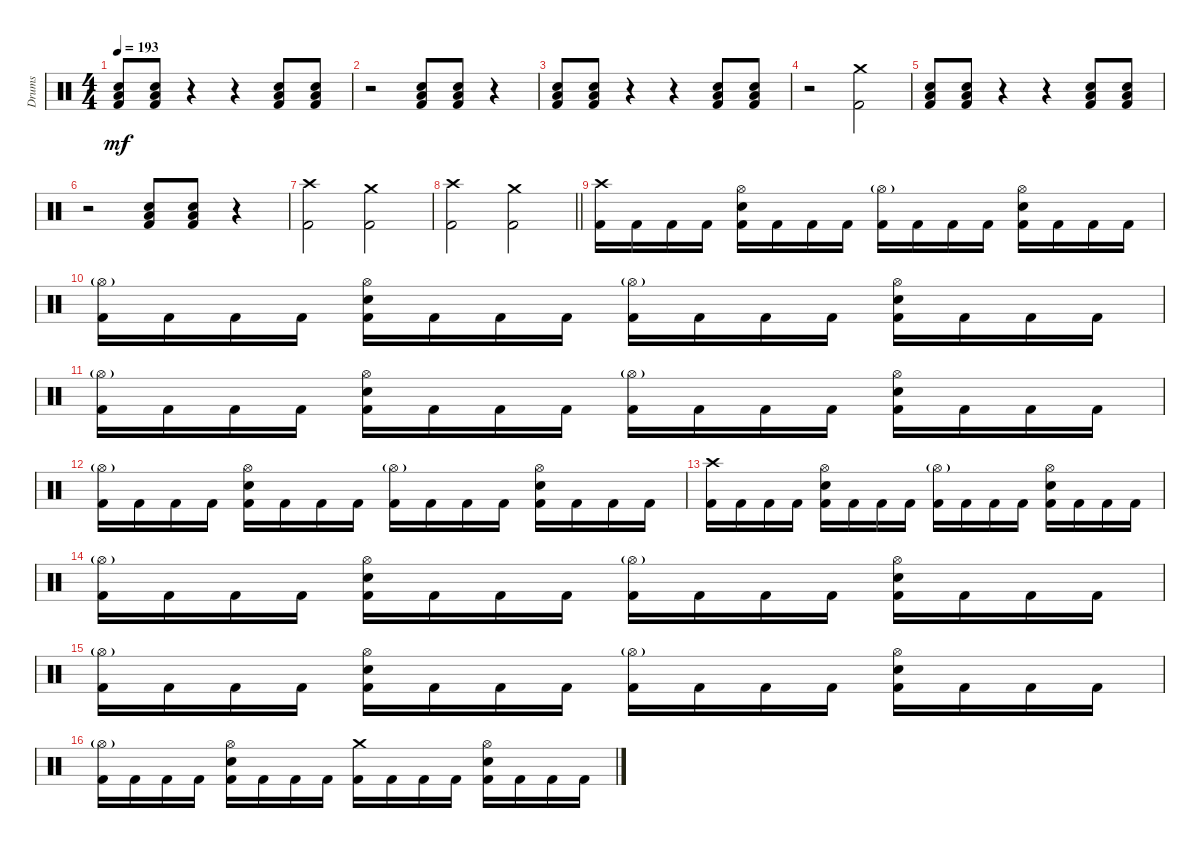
\track ("Drums" "Drums") {instrument percussion}
\staff {score}
\articulation defaults
\ts (4 4)
\tempo 193
\clef neutral
\ks c
("Low Tom (hit)" "Electric Snare (hit)" "Kick (hit) 2").8{dy mf} ("Low Tom (hit)" "Electric Snare (hit)" "Kick (hit) 2").8 r.4 r.4 ("Low Tom (hit)" "Electric Snare (hit)" "Kick (hit) 2").8 ("Low Tom (hit)" "Electric Snare (hit)" "Kick (hit) 2").8 |
r.2 ("Low Tom (hit)" "Electric Snare (hit)" "Kick (hit) 2").8 ("Low Tom (hit)" "Electric Snare (hit)" "Kick (hit) 2").8 r.4 |
("Low Tom (hit)" "Electric Snare (hit)" "Kick (hit) 2").8 ("Low Tom (hit)" "Electric Snare (hit)" "Kick (hit) 2").8 r.4 r.4 ("Low Tom (hit)" "Electric Snare (hit)" "Kick (hit) 2").8 ("Low Tom (hit)" "Electric Snare (hit)" "Kick (hit) 2").8 |
r.2 ("Crash medium (hit)" "Kick (hit) 2").2 |
("Low Tom (hit)" "Electric Snare (hit)" "Kick (hit) 2").8 ("Low Tom (hit)" "Electric Snare (hit)" "Kick (hit) 2").8 r.4 r.4 ("Low Tom (hit)" "Electric Snare (hit)" "Kick (hit) 2").8 ("Low Tom (hit)" "Electric Snare (hit)" "Kick (hit) 2").8 |
r.2 ("Low Tom (hit)" "Electric Snare (hit)" "Kick (hit) 2").8 ("Low Tom (hit)" "Electric Snare (hit)" "Kick (hit) 2").8 r.4 |
("Crash high (hit)" "Kick (hit) 2").2 ("Crash medium (hit)" "Kick (hit) 2").2 |
\barLineRight lightlight
("Crash high (hit)" "Kick (hit) 2").2 ("Crash medium (hit)" "Kick (hit) 2").2 |
("Crash high (hit)" "Kick (hit) 2").16 "Kick (hit) 2".16 "Kick (hit) 2".16 "Kick (hit) 2".16 ("Hi-Hat (open)" "Electric Snare (hit)" "Kick (hit) 2").16 "Kick (hit) 2".16 "Kick (hit) 2".16 "Kick (hit) 2".16 ("Hi-Hat (open)"{g} "Kick (hit) 2").16 "Kick (hit) 2".16 "Kick (hit) 2".16 "Kick (hit) 2".16 ("Hi-Hat (open)" "Electric Snare (hit)" "Kick (hit) 2").16 "Kick (hit) 2".16 "Kick (hit) 2".16 "Kick (hit) 2".16 |
("Hi-Hat (open)"{g} "Kick (hit) 2").16 "Kick (hit) 2".16 "Kick (hit) 2".16 "Kick (hit) 2".16 ("Hi-Hat (open)" "Electric Snare (hit)" "Kick (hit) 2").16 "Kick (hit) 2".16 "Kick (hit) 2".16 "Kick (hit) 2".16 ("Hi-Hat (open)"{g} "Kick (hit) 2").16 "Kick (hit) 2".16 "Kick (hit) 2".16 "Kick (hit) 2".16 ("Hi-Hat (open)" "Electric Snare (hit)" "Kick (hit) 2").16 "Kick (hit) 2".16 "Kick (hit) 2".16 "Kick (hit) 2".16 |
("Hi-Hat (open)"{g} "Kick (hit) 2").16 "Kick (hit) 2".16 "Kick (hit) 2".16 "Kick (hit) 2".16 ("Hi-Hat (open)" "Electric Snare (hit)" "Kick (hit) 2").16 "Kick (hit) 2".16 "Kick (hit) 2".16 "Kick (hit) 2".16 ("Hi-Hat (open)"{g} "Kick (hit) 2").16 "Kick (hit) 2".16 "Kick (hit) 2".16 "Kick (hit) 2".16 ("Hi-Hat (open)" "Electric Snare (hit)" "Kick (hit) 2").16 "Kick (hit) 2".16 "Kick (hit) 2".16 "Kick (hit) 2".16 |
("Hi-Hat (open)"{g} "Kick (hit) 2").16 "Kick (hit) 2".16 "Kick (hit) 2".16 "Kick (hit) 2".16 ("Hi-Hat (open)" "Electric Snare (hit)" "Kick (hit) 2").16 "Kick (hit) 2".16 "Kick (hit) 2".16 "Kick (hit) 2".16 ("Hi-Hat (open)"{g} "Kick (hit) 2").16 "Kick (hit) 2".16 "Kick (hit) 2".16 "Kick (hit) 2".16 ("Hi-Hat (open)" "Electric Snare (hit)" "Kick (hit) 2").16 "Kick (hit) 2".16 "Kick (hit) 2".16 "Kick (hit) 2".16 |
("Crash high (hit)" "Kick (hit) 2").16 "Kick (hit) 2".16 "Kick (hit) 2".16 "Kick (hit) 2".16 ("Hi-Hat (open)" "Electric Snare (hit)" "Kick (hit) 2").16 "Kick (hit) 2".16 "Kick (hit) 2".16 "Kick (hit) 2".16 ("Hi-Hat (open)"{g} "Kick (hit) 2").16 "Kick (hit) 2".16 "Kick (hit) 2".16 "Kick (hit) 2".16 ("Hi-Hat (open)" "Electric Snare (hit)" "Kick (hit) 2").16 "Kick (hit) 2".16 "Kick (hit) 2".16 "Kick (hit) 2".16 |
("Hi-Hat (open)"{g} "Kick (hit) 2").16 "Kick (hit) 2".16 "Kick (hit) 2".16 "Kick (hit) 2".16 ("Hi-Hat (open)" "Electric Snare (hit)" "Kick (hit) 2").16 "Kick (hit) 2".16 "Kick (hit) 2".16 "Kick (hit) 2".16 ("Hi-Hat (open)"{g} "Kick (hit) 2").16 "Kick (hit) 2".16 "Kick (hit) 2".16 "Kick (hit) 2".16 ("Hi-Hat (open)" "Electric Snare (hit)" "Kick (hit) 2").16 "Kick (hit) 2".16 "Kick (hit) 2".16 "Kick (hit) 2".16 |
("Hi-Hat (open)"{g} "Kick (hit) 2").16 "Kick (hit) 2".16 "Kick (hit) 2".16 "Kick (hit) 2".16 ("Hi-Hat (open)" "Electric Snare (hit)" "Kick (hit) 2").16 "Kick (hit) 2".16 "Kick (hit) 2".16 "Kick (hit) 2".16 ("Hi-Hat (open)"{g} "Kick (hit) 2").16 "Kick (hit) 2".16 "Kick (hit) 2".16 "Kick (hit) 2".16 ("Hi-Hat (open)" "Electric Snare (hit)" "Kick (hit) 2").16 "Kick (hit) 2".16 "Kick (hit) 2".16 "Kick (hit) 2".16 |
("Hi-Hat (open)"{g} "Kick (hit) 2").16 "Kick (hit) 2".16 "Kick (hit) 2".16 "Kick (hit) 2".16 ("Hi-Hat (open)" "Electric Snare (hit)" "Kick (hit) 2").16 "Kick (hit) 2".16 "Kick (hit) 2".16 "Kick (hit) 2".16 ("Crash medium (hit)" "Kick (hit) 2").16 "Kick (hit) 2".16 "Kick (hit) 2".16 "Kick (hit) 2".16 ("Hi-Hat (open)" "Electric Snare (hit)" "Kick (hit) 2").16 "Kick (hit) 2".16 "Kick (hit) 2".16 "Kick (hit) 2".16
